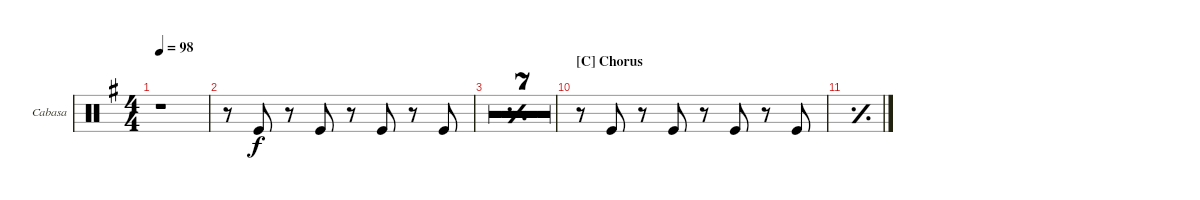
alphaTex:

\defaultSystemsLayout 4
\bracketExtendMode groupsimilarinstruments
\firstSystemTrackNameOrientation horizontal
\otherSystemsTrackNameOrientation horizontal
\track ("Cabasa" "Cabasa") {multiBarRest instrument percussion}
\staff {score}
\articulation defaults
\ts (4 4)
\tempo 98
\clef neutral
\ks g
r.1{dy f} |
r.8 "Kick (hit)".8 r.8 "Kick (hit)".8 r.8 "Kick (hit)".8 r.8 "Kick (hit)".8 |
\simile simple
|
|
|
|
|
|
|
\section ("C" "Chorus")
\simile none
r.8 "Kick (hit)".8 r.8 "Kick (hit)".8 r.8 "Kick (hit)".8 r.8 "Kick (hit)".8 |
\simile simple
